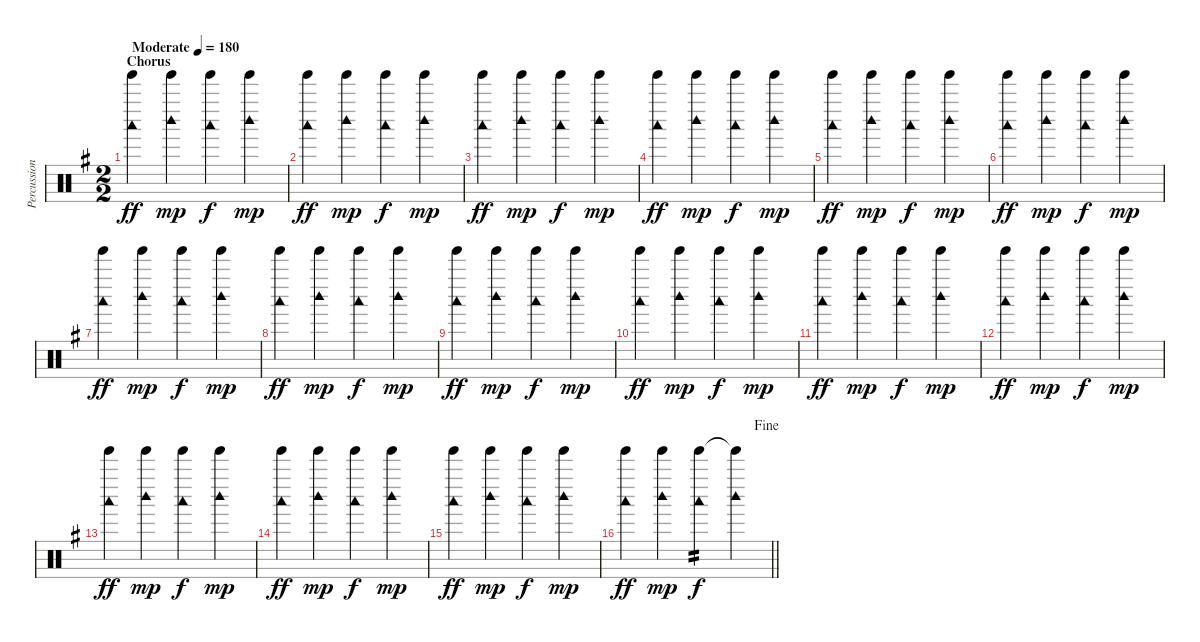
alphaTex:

\track ("Percussion" "Percussion") {instrument percussion}
\staff {score}
\articulation defaults
\ts (2 2)
\section ("" "Chorus")
\tempo (180 "Moderate")
\clef neutral
\ks g
("Tinkle Bell (hit)" "Woodblock low (hit)").4{dy ff} ("Tinkle Bell (hit)" "Woodblock high (hit)").4{dy mp} ("Tinkle Bell (hit)" "Woodblock low (hit)").4{dy f} ("Tinkle Bell (hit)" "Woodblock high (hit)").4{dy mp} |
("Tinkle Bell (hit)" "Woodblock low (hit)").4{dy ff} ("Tinkle Bell (hit)" "Woodblock high (hit)").4{dy mp} ("Tinkle Bell (hit)" "Woodblock low (hit)").4{dy f} ("Tinkle Bell (hit)" "Woodblock high (hit)").4{dy mp} |
("Tinkle Bell (hit)" "Woodblock low (hit)").4{dy ff} ("Tinkle Bell (hit)" "Woodblock high (hit)").4{dy mp} ("Tinkle Bell (hit)" "Woodblock low (hit)").4{dy f} ("Tinkle Bell (hit)" "Woodblock high (hit)").4{dy mp} |
("Tinkle Bell (hit)" "Woodblock low (hit)").4{dy ff} ("Tinkle Bell (hit)" "Woodblock high (hit)").4{dy mp} ("Tinkle Bell (hit)" "Woodblock low (hit)").4{dy f} ("Tinkle Bell (hit)" "Woodblock high (hit)").4{dy mp} |
("Tinkle Bell (hit)" "Woodblock low (hit)").4{dy ff} ("Tinkle Bell (hit)" "Woodblock high (hit)").4{dy mp} ("Tinkle Bell (hit)" "Woodblock low (hit)").4{dy f} ("Tinkle Bell (hit)" "Woodblock high (hit)").4{dy mp} |
("Tinkle Bell (hit)" "Woodblock low (hit)").4{dy ff} ("Tinkle Bell (hit)" "Woodblock high (hit)").4{dy mp} ("Tinkle Bell (hit)" "Woodblock low (hit)").4{dy f} ("Tinkle Bell (hit)" "Woodblock high (hit)").4{dy mp} |
("Tinkle Bell (hit)" "Woodblock low (hit)").4{dy ff} ("Tinkle Bell (hit)" "Woodblock high (hit)").4{dy mp} ("Tinkle Bell (hit)" "Woodblock low (hit)").4{dy f} ("Tinkle Bell (hit)" "Woodblock high (hit)").4{dy mp} |
("Tinkle Bell (hit)" "Woodblock low (hit)").4{dy ff} ("Tinkle Bell (hit)" "Woodblock high (hit)").4{dy mp} ("Tinkle Bell (hit)" "Woodblock low (hit)").4{dy f} ("Tinkle Bell (hit)" "Woodblock high (hit)").4{dy mp} |
("Tinkle Bell (hit)" "Woodblock low (hit)").4{dy ff} ("Tinkle Bell (hit)" "Woodblock high (hit)").4{dy mp} ("Tinkle Bell (hit)" "Woodblock low (hit)").4{dy f} ("Tinkle Bell (hit)" "Woodblock high (hit)").4{dy mp} |
("Tinkle Bell (hit)" "Woodblock low (hit)").4{dy ff} ("Tinkle Bell (hit)" "Woodblock high (hit)").4{dy mp} ("Tinkle Bell (hit)" "Woodblock low (hit)").4{dy f} ("Tinkle Bell (hit)" "Woodblock high (hit)").4{dy mp} |
("Tinkle Bell (hit)" "Woodblock low (hit)").4{dy ff} ("Tinkle Bell (hit)" "Woodblock high (hit)").4{dy mp} ("Tinkle Bell (hit)" "Woodblock low (hit)").4{dy f} ("Tinkle Bell (hit)" "Woodblock high (hit)").4{dy mp} |
("Tinkle Bell (hit)" "Woodblock low (hit)").4{dy ff} ("Tinkle Bell (hit)" "Woodblock high (hit)").4{dy mp} ("Tinkle Bell (hit)" "Woodblock low (hit)").4{dy f} ("Tinkle Bell (hit)" "Woodblock high (hit)").4{dy mp} |
("Tinkle Bell (hit)" "Woodblock low (hit)").4{dy ff} ("Tinkle Bell (hit)" "Woodblock high (hit)").4{dy mp} ("Tinkle Bell (hit)" "Woodblock low (hit)").4{dy f} ("Tinkle Bell (hit)" "Woodblock high (hit)").4{dy mp} |
("Tinkle Bell (hit)" "Woodblock low (hit)").4{dy ff} ("Tinkle Bell (hit)" "Woodblock high (hit)").4{dy mp} ("Tinkle Bell (hit)" "Woodblock low (hit)").4{dy f} ("Tinkle Bell (hit)" "Woodblock high (hit)").4{dy mp} |
("Tinkle Bell (hit)" "Woodblock low (hit)").4{dy ff} ("Tinkle Bell (hit)" "Woodblock high (hit)").4{dy mp} ("Tinkle Bell (hit)" "Woodblock low (hit)").4{dy f} ("Tinkle Bell (hit)" "Woodblock high (hit)").4{dy mp} |
\jump fine
\barLineRight lightlight
("Tinkle Bell (hit)" "Woodblock low (hit)").4{dy ff} ("Tinkle Bell (hit)" "Woodblock high (hit)").4{dy mp} ("Tinkle Bell (hit)" "Woodblock low (hit)").4{tp 2 dy f} ("Tinkle Bell (hit)"{t} "Woodblock high (hit)").4
